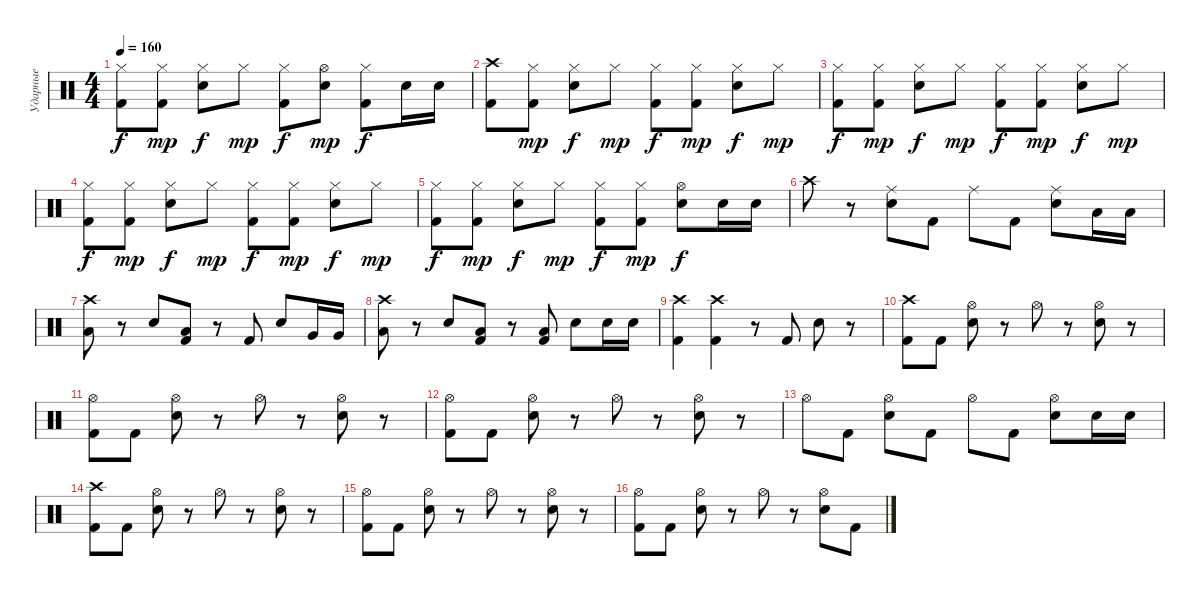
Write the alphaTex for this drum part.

\track ("Ударные" "Ударные") {instrument percussion}
\staff {score}
\articulation defaults
\ts (4 4)
\tempo 160
\clef neutral
\ks c
("Hi-Hat (closed)" "Kick (hit) 2").8{dy f} ("Hi-Hat (closed)" "Kick (hit) 2").8{dy mp} ("Hi-Hat (closed)" "Snare (hit) 2").8{dy f} "Hi-Hat (closed)".8{dy mp} ("Hi-Hat (closed)" "Kick (hit) 2").8{dy f} ("Hi-Hat (open)" "Snare (hit) 2").8{dy mp} ("Hi-Hat (closed)" "Kick (hit) 2").8{dy f} "Snare (hit) 2".16 "Snare (hit) 2".16 |
("Crash high (hit)" "Kick (hit) 2").8 ("Hi-Hat (closed)" "Kick (hit) 2").8{dy mp} ("Hi-Hat (closed)" "Snare (hit) 2").8{dy f} "Hi-Hat (closed)".8{dy mp} ("Hi-Hat (closed)" "Kick (hit) 2").8{dy f} ("Hi-Hat (closed)" "Kick (hit) 2").8{dy mp} ("Hi-Hat (closed)" "Snare (hit) 2").8{dy f} "Hi-Hat (closed)".8{dy mp} |
("Hi-Hat (closed)" "Kick (hit) 2").8{dy f} ("Hi-Hat (closed)" "Kick (hit) 2").8{dy mp} ("Hi-Hat (closed)" "Snare (hit) 2").8{dy f} "Hi-Hat (closed)".8{dy mp} ("Hi-Hat (closed)" "Kick (hit) 2").8{dy f} ("Hi-Hat (closed)" "Kick (hit) 2").8{dy mp} ("Hi-Hat (closed)" "Snare (hit) 2").8{dy f} "Hi-Hat (closed)".8{dy mp} |
("Hi-Hat (closed)" "Kick (hit) 2").8{dy f} ("Hi-Hat (closed)" "Kick (hit) 2").8{dy mp} ("Hi-Hat (closed)" "Snare (hit) 2").8{dy f} "Hi-Hat (closed)".8{dy mp} ("Hi-Hat (closed)" "Kick (hit) 2").8{dy f} ("Hi-Hat (closed)" "Kick (hit) 2").8{dy mp} ("Hi-Hat (closed)" "Snare (hit) 2").8{dy f} "Hi-Hat (closed)".8{dy mp} |
("Hi-Hat (closed)" "Kick (hit) 2").8{dy f} ("Hi-Hat (closed)" "Kick (hit) 2").8{dy mp} ("Hi-Hat (closed)" "Snare (hit) 2").8{dy f} "Hi-Hat (closed)".8{dy mp} ("Hi-Hat (closed)" "Kick (hit) 2").8{dy f} ("Hi-Hat (closed)" "Kick (hit) 2").8{dy mp} ("Hi-Hat (open)" "Snare (hit) 2").8{dy f} "Snare (hit) 2".16 "Snare (hit) 2".16 |
"Crash high (hit)".8 r.8 ("Ride (middle)" "Snare (hit) 2").8 "Kick (hit) 2".8 "Ride (middle)".8 "Kick (hit) 2".8 ("Ride (middle)" "Snare (hit) 2").8 "Low Tom (hit)".16 "Low Tom (hit)".16 |
("Crash high (hit)" "Low Tom (hit)").8 r.8 "Snare (hit) 2".8 ("Kick (hit) 2" "Low Tom (hit)").8 r.8 "Kick (hit) 2".8 "Snare (hit) 2".8 "Very Low Tom (hit)".16 "Very Low Tom (hit)".16 |
("Crash high (hit)" "Low Tom (hit)").8 r.8 "Snare (hit) 2".8 ("Kick (hit) 2" "Low Tom (hit)").8 r.8 ("Kick (hit) 2" "Low Tom (hit)").8 "Snare (hit) 2".8 "Snare (hit) 2".16 "Snare (hit) 2".16 |
("Crash high (hit)" "Kick (hit) 2").4 ("Crash high (hit)" "Kick (hit) 2").4 r.8 "Kick (hit) 2".8 "Snare (hit) 2".8 r.8 |
("Crash high (hit)" "Kick (hit) 2").8 "Kick (hit) 2".8 ("Hi-Hat (open)" "Snare (hit) 2").8 r.8 "Hi-Hat (open)".8 r.8 ("Hi-Hat (open)" "Snare (hit) 2").8 r.8 |
("Hi-Hat (open)" "Kick (hit) 2").8 "Kick (hit) 2".8 ("Hi-Hat (open)" "Snare (hit) 2").8 r.8 "Hi-Hat (open)".8 r.8 ("Hi-Hat (open)" "Snare (hit) 2").8 r.8 |
("Hi-Hat (open)" "Kick (hit) 2").8 "Kick (hit) 2".8 ("Hi-Hat (open)" "Snare (hit) 2").8 r.8 "Hi-Hat (open)".8 r.8 ("Hi-Hat (open)" "Snare (hit) 2").8 r.8 |
"Hi-Hat (open)".8 "Kick (hit) 2".8 ("Hi-Hat (open)" "Snare (hit) 2").8 "Kick (hit) 2".8 "Hi-Hat (open)".8 "Kick (hit) 2".8 ("Hi-Hat (open)" "Snare (hit) 2").8 "Snare (hit) 2".16 "Snare (hit) 2".16 |
("Crash high (hit)" "Kick (hit) 2").8 "Kick (hit) 2".8 ("Hi-Hat (open)" "Snare (hit) 2").8 r.8 "Hi-Hat (open)".8 r.8 ("Hi-Hat (open)" "Snare (hit) 2").8 r.8 |
("Hi-Hat (open)" "Kick (hit) 2").8 "Kick (hit) 2".8 ("Hi-Hat (open)" "Snare (hit) 2").8 r.8 "Hi-Hat (open)".8 r.8 ("Hi-Hat (open)" "Snare (hit) 2").8 r.8 |
("Hi-Hat (open)" "Kick (hit) 2").8 "Kick (hit) 2".8 ("Hi-Hat (open)" "Snare (hit) 2").8 r.8 "Hi-Hat (open)".8 r.8 ("Hi-Hat (open)" "Snare (hit) 2").8 "Kick (hit) 2".8
